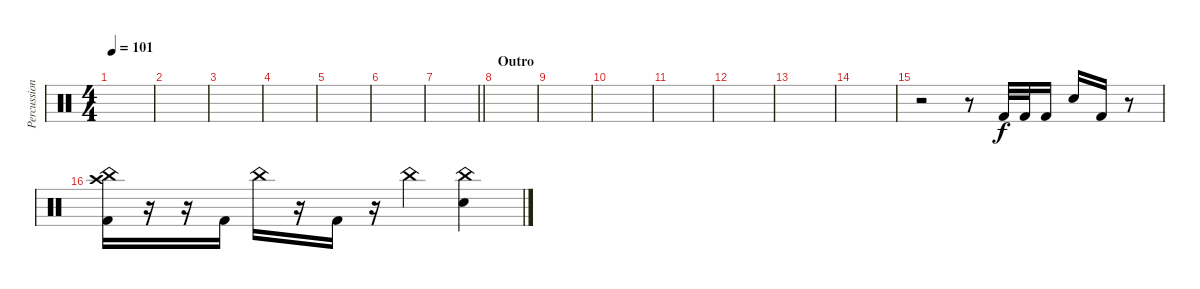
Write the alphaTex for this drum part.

\track ("Percussion" "Percussion") {instrument percussion}
\staff {score}
\articulation defaults
\ts (4 4)
\tempo 101
\clef neutral
\ks c
|
|
|
|
|
|
\barLineRight lightlight
|
\section ("" "Outro")
|
|
|
|
|
|
|
r.2 r.8 "Kick (hit) 2".32{dy f} "Kick (hit) 2".32 "Kick (hit) 2".16 "Electric Snare (hit)".16 "Kick (hit) 2".16 r.8 |
("Crash high (hit)" "China (hit)" "Kick (hit) 2").16 r.16 r.16 "Kick (hit) 2".16 "China (hit)".16 r.16 "Kick (hit) 2".16 r.16 "China (hit)".4 ("China (hit)" "Electric Snare (hit)").4
